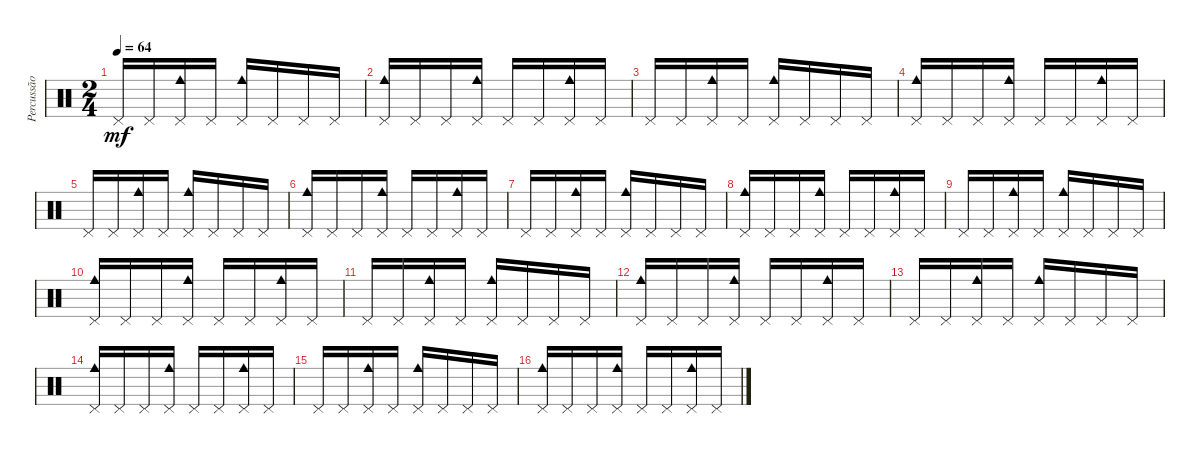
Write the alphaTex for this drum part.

\track ("Percussão" "Percussão") {instrument percussion}
\staff {score}
\articulation defaults
\ts (2 4)
\tempo 64
\clef neutral
\ks c "Pedal Hi-Hat (hit)".16{dy mf} "Pedal Hi-Hat (hit)".16
("Pedal Hi-Hat (hit)" "Cowbell medium (hit)").16 "Pedal Hi-Hat (hit)".16 ("Pedal Hi-Hat (hit)" "Cowbell medium (hit)").16 "Pedal Hi-Hat (hit)".16 "Pedal Hi-Hat (hit)".16 "Pedal Hi-Hat (hit)".16 |
("Pedal Hi-Hat (hit)" "Cowbell medium (hit)").16 "Pedal Hi-Hat (hit)".16 "Pedal Hi-Hat (hit)".16 ("Pedal Hi-Hat (hit)" "Cowbell medium (hit)").16 "Pedal Hi-Hat (hit)".16 "Pedal Hi-Hat (hit)".16 ("Pedal Hi-Hat (hit)" "Cowbell medium (hit)").16 "Pedal Hi-Hat (hit)".16 |
"Pedal Hi-Hat (hit)".16 "Pedal Hi-Hat (hit)".16 ("Pedal Hi-Hat (hit)" "Cowbell medium (hit)").16 "Pedal Hi-Hat (hit)".16 ("Pedal Hi-Hat (hit)" "Cowbell medium (hit)").16 "Pedal Hi-Hat (hit)".16 "Pedal Hi-Hat (hit)".16 "Pedal Hi-Hat (hit)".16 |
("Pedal Hi-Hat (hit)" "Cowbell medium (hit)").16 "Pedal Hi-Hat (hit)".16 "Pedal Hi-Hat (hit)".16 ("Pedal Hi-Hat (hit)" "Cowbell medium (hit)").16 "Pedal Hi-Hat (hit)".16 "Pedal Hi-Hat (hit)".16 ("Pedal Hi-Hat (hit)" "Cowbell medium (hit)").16 "Pedal Hi-Hat (hit)".16 |
"Pedal Hi-Hat (hit)".16 "Pedal Hi-Hat (hit)".16 ("Pedal Hi-Hat (hit)" "Cowbell medium (hit)").16 "Pedal Hi-Hat (hit)".16 ("Pedal Hi-Hat (hit)" "Cowbell medium (hit)").16 "Pedal Hi-Hat (hit)".16 "Pedal Hi-Hat (hit)".16 "Pedal Hi-Hat (hit)".16 |
("Pedal Hi-Hat (hit)" "Cowbell medium (hit)").16 "Pedal Hi-Hat (hit)".16 "Pedal Hi-Hat (hit)".16 ("Pedal Hi-Hat (hit)" "Cowbell medium (hit)").16 "Pedal Hi-Hat (hit)".16 "Pedal Hi-Hat (hit)".16 ("Pedal Hi-Hat (hit)" "Cowbell medium (hit)").16 "Pedal Hi-Hat (hit)".16 |
"Pedal Hi-Hat (hit)".16 "Pedal Hi-Hat (hit)".16 ("Pedal Hi-Hat (hit)" "Cowbell medium (hit)").16 "Pedal Hi-Hat (hit)".16 ("Pedal Hi-Hat (hit)" "Cowbell medium (hit)").16 "Pedal Hi-Hat (hit)".16 "Pedal Hi-Hat (hit)".16 "Pedal Hi-Hat (hit)".16 |
("Pedal Hi-Hat (hit)" "Cowbell medium (hit)").16 "Pedal Hi-Hat (hit)".16 "Pedal Hi-Hat (hit)".16 ("Pedal Hi-Hat (hit)" "Cowbell medium (hit)").16 "Pedal Hi-Hat (hit)".16 "Pedal Hi-Hat (hit)".16 ("Pedal Hi-Hat (hit)" "Cowbell medium (hit)").16 "Pedal Hi-Hat (hit)".16 |
"Pedal Hi-Hat (hit)".16 "Pedal Hi-Hat (hit)".16 ("Pedal Hi-Hat (hit)" "Cowbell medium (hit)").16 "Pedal Hi-Hat (hit)".16 ("Pedal Hi-Hat (hit)" "Cowbell medium (hit)").16 "Pedal Hi-Hat (hit)".16 "Pedal Hi-Hat (hit)".16 "Pedal Hi-Hat (hit)".16 |
("Pedal Hi-Hat (hit)" "Cowbell medium (hit)").16 "Pedal Hi-Hat (hit)".16 "Pedal Hi-Hat (hit)".16 ("Pedal Hi-Hat (hit)" "Cowbell medium (hit)").16 "Pedal Hi-Hat (hit)".16 "Pedal Hi-Hat (hit)".16 ("Pedal Hi-Hat (hit)" "Cowbell medium (hit)").16 "Pedal Hi-Hat (hit)".16 |
"Pedal Hi-Hat (hit)".16 "Pedal Hi-Hat (hit)".16 ("Pedal Hi-Hat (hit)" "Cowbell medium (hit)").16 "Pedal Hi-Hat (hit)".16 ("Pedal Hi-Hat (hit)" "Cowbell medium (hit)").16 "Pedal Hi-Hat (hit)".16 "Pedal Hi-Hat (hit)".16 "Pedal Hi-Hat (hit)".16 |
("Pedal Hi-Hat (hit)" "Cowbell medium (hit)").16 "Pedal Hi-Hat (hit)".16 "Pedal Hi-Hat (hit)".16 ("Pedal Hi-Hat (hit)" "Cowbell medium (hit)").16 "Pedal Hi-Hat (hit)".16 "Pedal Hi-Hat (hit)".16 ("Pedal Hi-Hat (hit)" "Cowbell medium (hit)").16 "Pedal Hi-Hat (hit)".16 |
"Pedal Hi-Hat (hit)".16 "Pedal Hi-Hat (hit)".16 ("Pedal Hi-Hat (hit)" "Cowbell medium (hit)").16 "Pedal Hi-Hat (hit)".16 ("Pedal Hi-Hat (hit)" "Cowbell medium (hit)").16 "Pedal Hi-Hat (hit)".16 "Pedal Hi-Hat (hit)".16 "Pedal Hi-Hat (hit)".16 |
("Pedal Hi-Hat (hit)" "Cowbell medium (hit)").16 "Pedal Hi-Hat (hit)".16 "Pedal Hi-Hat (hit)".16 ("Pedal Hi-Hat (hit)" "Cowbell medium (hit)").16 "Pedal Hi-Hat (hit)".16 "Pedal Hi-Hat (hit)".16 ("Pedal Hi-Hat (hit)" "Cowbell medium (hit)").16 "Pedal Hi-Hat (hit)".16 |
"Pedal Hi-Hat (hit)".16 "Pedal Hi-Hat (hit)".16 ("Pedal Hi-Hat (hit)" "Cowbell medium (hit)").16 "Pedal Hi-Hat (hit)".16 ("Pedal Hi-Hat (hit)" "Cowbell medium (hit)").16 "Pedal Hi-Hat (hit)".16 "Pedal Hi-Hat (hit)".16 "Pedal Hi-Hat (hit)".16 |
("Pedal Hi-Hat (hit)" "Cowbell medium (hit)").16 "Pedal Hi-Hat (hit)".16 "Pedal Hi-Hat (hit)".16 ("Pedal Hi-Hat (hit)" "Cowbell medium (hit)").16 "Pedal Hi-Hat (hit)".16 "Pedal Hi-Hat (hit)".16 ("Cowbell medium (hit)" "Pedal Hi-Hat (hit)").16 "Pedal Hi-Hat (hit)".16
